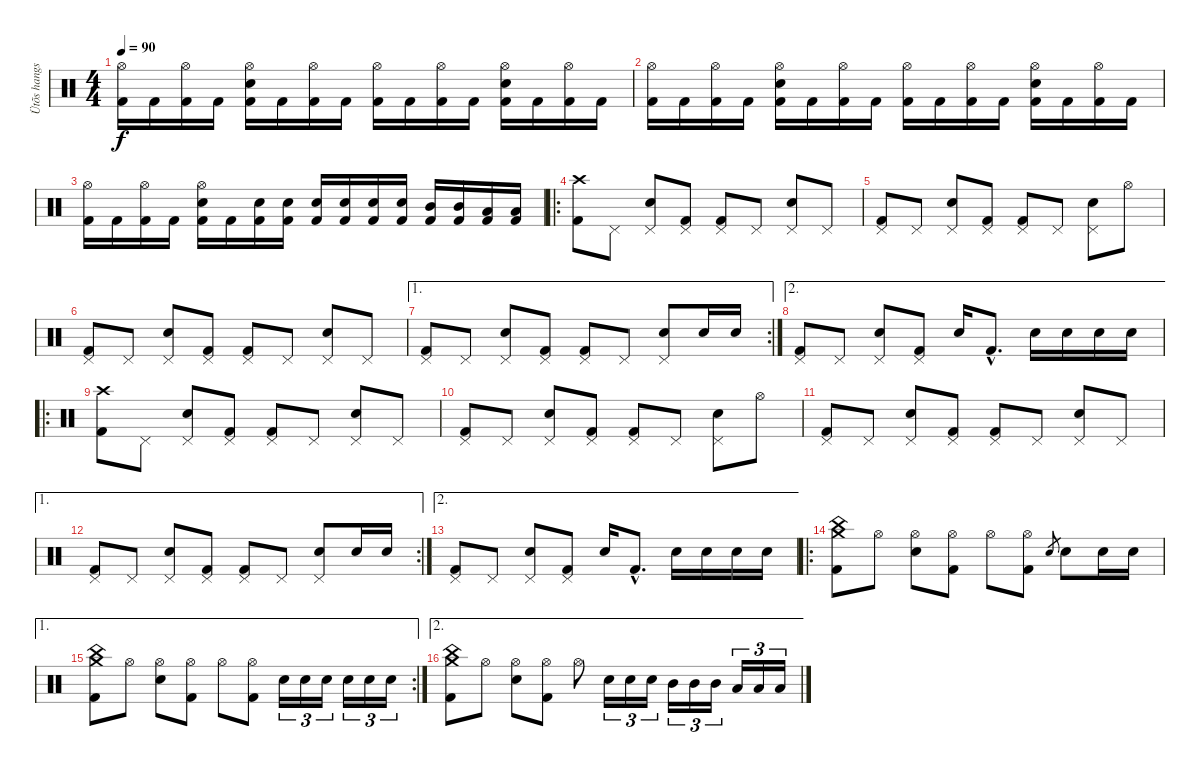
\track ("Ütõs hangszer" "Ütõs hangs") {instrument percussion}
\staff {score}
\articulation defaults
\ts (4 4)
\tempo 90
\clef neutral
\ks c
("Hi-Hat (open)" "Kick (hit) 2").16{dy f} "Kick (hit) 2".16 ("Hi-Hat (open)" "Kick (hit) 2").16 "Kick (hit) 2".16 ("Hi-Hat (open)" "Electric Snare (hit)" "Kick (hit) 2").16 "Kick (hit) 2".16 ("Hi-Hat (open)" "Kick (hit) 2").16 "Kick (hit) 2".16 ("Hi-Hat (open)" "Kick (hit) 2").16 "Kick (hit) 2".16 ("Hi-Hat (open)" "Kick (hit) 2").16 "Kick (hit) 2".16 ("Hi-Hat (open)" "Electric Snare (hit)" "Kick (hit) 2").16 "Kick (hit) 2".16 ("Hi-Hat (open)" "Kick (hit) 2").16 "Kick (hit) 2".16 |
("Hi-Hat (open)" "Kick (hit) 2").16 "Kick (hit) 2".16 ("Hi-Hat (open)" "Kick (hit) 2").16 "Kick (hit) 2".16 ("Hi-Hat (open)" "Electric Snare (hit)" "Kick (hit) 2").16 "Kick (hit) 2".16 ("Hi-Hat (open)" "Kick (hit) 2").16 "Kick (hit) 2".16 ("Hi-Hat (open)" "Kick (hit) 2").16 "Kick (hit) 2".16 ("Hi-Hat (open)" "Kick (hit) 2").16 "Kick (hit) 2".16 ("Hi-Hat (open)" "Electric Snare (hit)" "Kick (hit) 2").16 "Kick (hit) 2".16 ("Hi-Hat (open)" "Kick (hit) 2").16 "Kick (hit) 2".16 |
("Hi-Hat (open)" "Kick (hit) 2").16 "Kick (hit) 2".16 ("Hi-Hat (open)" "Kick (hit) 2").16 "Kick (hit) 2".16 ("Hi-Hat (open)" "Electric Snare (hit)" "Kick (hit) 2").16 "Kick (hit) 2".16 ("Electric Snare (hit)" "Kick (hit) 2").16 ("Electric Snare (hit)" "Kick (hit) 2").16 ("Electric Snare (hit)" "Kick (hit) 2").16 ("Electric Snare (hit)" "Kick (hit) 2").16 ("Electric Snare (hit)" "Kick (hit) 2").16 ("Electric Snare (hit)" "Kick (hit) 2").16 ("Mid Tom (hit)" "Kick (hit) 2").16 ("Mid Tom (hit)" "Kick (hit) 2").16 ("Low Tom (hit)" "Kick (hit) 2").16 ("Low Tom (hit)" "Kick (hit) 2").16 |
\ro
("Crash high (hit)" "Kick (hit) 2").8 "Pedal Hi-Hat (hit)".8 ("Pedal Hi-Hat (hit)" "Electric Snare (hit)").8 ("Pedal Hi-Hat (hit)" "Kick (hit) 2").8 ("Pedal Hi-Hat (hit)" "Kick (hit) 2").8 "Pedal Hi-Hat (hit)".8 ("Pedal Hi-Hat (hit)" "Electric Snare (hit)").8 "Pedal Hi-Hat (hit)".8 |
("Pedal Hi-Hat (hit)" "Kick (hit) 2").8 "Pedal Hi-Hat (hit)".8 ("Pedal Hi-Hat (hit)" "Electric Snare (hit)").8 ("Pedal Hi-Hat (hit)" "Kick (hit) 2").8 ("Pedal Hi-Hat (hit)" "Kick (hit) 2").8 "Pedal Hi-Hat (hit)".8 ("Pedal Hi-Hat (hit)" "Electric Snare (hit)").8 "Hi-Hat (open)".8 |
("Pedal Hi-Hat (hit)" "Kick (hit) 2").8 "Pedal Hi-Hat (hit)".8 ("Pedal Hi-Hat (hit)" "Electric Snare (hit)").8 ("Pedal Hi-Hat (hit)" "Kick (hit) 2").8 ("Pedal Hi-Hat (hit)" "Kick (hit) 2").8 "Pedal Hi-Hat (hit)".8 ("Pedal Hi-Hat (hit)" "Electric Snare (hit)").8 "Pedal Hi-Hat (hit)".8 |
\ae 1
\rc 2
("Pedal Hi-Hat (hit)" "Kick (hit) 2").8 "Pedal Hi-Hat (hit)".8 ("Pedal Hi-Hat (hit)" "Electric Snare (hit)").8 ("Pedal Hi-Hat (hit)" "Kick (hit) 2").8 ("Pedal Hi-Hat (hit)" "Kick (hit) 2").8 "Pedal Hi-Hat (hit)".8 ("Pedal Hi-Hat (hit)" "Electric Snare (hit)").8 "Electric Snare (hit)".16 "Electric Snare (hit)".16 |
\ae 2
("Pedal Hi-Hat (hit)" "Kick (hit) 2").8 "Pedal Hi-Hat (hit)".8 ("Pedal Hi-Hat (hit)" "Electric Snare (hit)").8 ("Pedal Hi-Hat (hit)" "Kick (hit) 2").8 "Electric Snare (hit)".16 "Kick (hit) 2"{hac}.8{d} "Electric Snare (hit)".16 "Electric Snare (hit)".16 "Electric Snare (hit)".16 "Electric Snare (hit)".16 |
\ro
("Crash high (hit)" "Kick (hit) 2").8 "Pedal Hi-Hat (hit)".8 ("Pedal Hi-Hat (hit)" "Electric Snare (hit)").8 ("Pedal Hi-Hat (hit)" "Kick (hit) 2").8 ("Pedal Hi-Hat (hit)" "Kick (hit) 2").8 "Pedal Hi-Hat (hit)".8 ("Pedal Hi-Hat (hit)" "Electric Snare (hit)").8 "Pedal Hi-Hat (hit)".8 |
("Pedal Hi-Hat (hit)" "Kick (hit) 2").8 "Pedal Hi-Hat (hit)".8 ("Pedal Hi-Hat (hit)" "Electric Snare (hit)").8 ("Pedal Hi-Hat (hit)" "Kick (hit) 2").8 ("Pedal Hi-Hat (hit)" "Kick (hit) 2").8 "Pedal Hi-Hat (hit)".8 ("Pedal Hi-Hat (hit)" "Electric Snare (hit)").8 "Hi-Hat (open)".8 |
("Pedal Hi-Hat (hit)" "Kick (hit) 2").8 "Pedal Hi-Hat (hit)".8 ("Pedal Hi-Hat (hit)" "Electric Snare (hit)").8 ("Pedal Hi-Hat (hit)" "Kick (hit) 2").8 ("Pedal Hi-Hat (hit)" "Kick (hit) 2").8 "Pedal Hi-Hat (hit)".8 ("Pedal Hi-Hat (hit)" "Electric Snare (hit)").8 "Pedal Hi-Hat (hit)".8 |
\ae 1
\rc 2
("Pedal Hi-Hat (hit)" "Kick (hit) 2").8 "Pedal Hi-Hat (hit)".8 ("Pedal Hi-Hat (hit)" "Electric Snare (hit)").8 ("Pedal Hi-Hat (hit)" "Kick (hit) 2").8 ("Pedal Hi-Hat (hit)" "Kick (hit) 2").8 "Pedal Hi-Hat (hit)".8 ("Pedal Hi-Hat (hit)" "Electric Snare (hit)").8 "Electric Snare (hit)".16 "Electric Snare (hit)".16 |
\ae 2
("Pedal Hi-Hat (hit)" "Kick (hit) 2").8 "Pedal Hi-Hat (hit)".8 ("Pedal Hi-Hat (hit)" "Electric Snare (hit)").8 ("Pedal Hi-Hat (hit)" "Kick (hit) 2").8 "Electric Snare (hit)".16 "Kick (hit) 2"{hac}.8{d} "Electric Snare (hit)".16 "Electric Snare (hit)".16 "Electric Snare (hit)".16 "Electric Snare (hit)".16 |
\ro
("Crash medium (hit)" "China (hit)" "Kick (hit) 2").8 "Hi-Hat (open)".8 ("Hi-Hat (open)" "Electric Snare (hit)").8 ("Hi-Hat (open)" "Kick (hit) 2").8 "Hi-Hat (open)".8 ("Hi-Hat (open)" "Kick (hit) 2").8 "Electric Snare (hit)".8{gr} "Electric Snare (hit)".8 "Electric Snare (hit)".16 "Electric Snare (hit)".16 |
\ae 1
\rc 2
("Crash medium (hit)" "China (hit)" "Kick (hit) 2").8 "Hi-Hat (open)".8 ("Hi-Hat (open)" "Electric Snare (hit)").8 ("Hi-Hat (open)" "Kick (hit) 2").8 "Hi-Hat (open)".8 ("Hi-Hat (open)" "Kick (hit) 2").8 "Electric Snare (hit)".16{tu (3 2)} "Electric Snare (hit)".16{tu (3 2)} "Electric Snare (hit)".16{tu (3 2)} "Electric Snare (hit)".16{tu (3 2)} "Electric Snare (hit)".16{tu (3 2)} "Electric Snare (hit)".16{tu (3 2)} |
\ae 2
("Crash medium (hit)" "China (hit)" "Kick (hit) 2").8 "Hi-Hat (open)".8 ("Hi-Hat (open)" "Electric Snare (hit)").8 ("Hi-Hat (open)" "Kick (hit) 2").8 "Hi-Hat (open)".8 "Electric Snare (hit)".16{tu (3 2)} "Electric Snare (hit)".16{tu (3 2)} "Electric Snare (hit)".16{tu (3 2)} "Mid Tom (hit)".16{tu (3 2)} "Mid Tom (hit)".16{tu (3 2)} "Mid Tom (hit)".16{tu (3 2)} "Low Tom (hit)".16{tu (3 2)} "Low Tom (hit)".16{tu (3 2)} "Low Tom (hit)".16{tu (3 2)}
